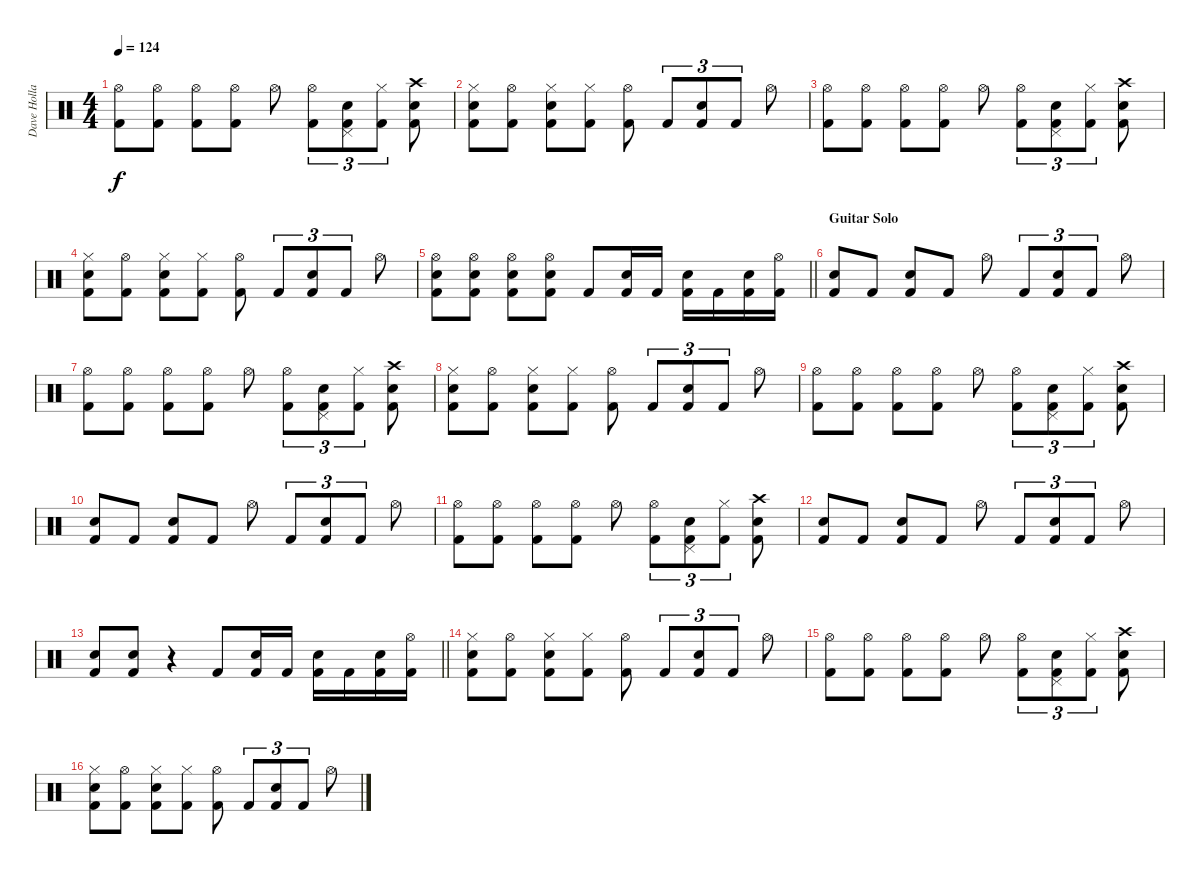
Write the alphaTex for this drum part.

\track ("Dave Holland" "Dave Holla") {instrument percussion}
\staff {score}
\articulation defaults
\ts (4 4)
\tempo 124
\clef neutral
\ks c
("Hi-Hat (open)" "Kick (hit) 2").8{dy f} ("Hi-Hat (open)" "Kick (hit) 2").8 ("Hi-Hat (open)" "Kick (hit) 2").8 ("Hi-Hat (open)" "Kick (hit) 2").8 "Hi-Hat (open)".8 ("Hi-Hat (open)" "Kick (hit) 2").8{tu (3 2)} ("Pedal Hi-Hat (hit)" "Snare (hit) 2" "Kick (hit) 2").8{tu (3 2)} ("Hi-Hat (closed)" "Kick (hit) 2").8{tu (3 2)} ("Crash high (hit)" "Snare (hit) 2" "Kick (hit) 2").8 |
("Hi-Hat (closed)" "Snare (hit) 2" "Kick (hit) 2").8 ("Hi-Hat (open)" "Kick (hit) 2").8 ("Hi-Hat (closed)" "Snare (hit) 2" "Kick (hit) 2").8 ("Hi-Hat (closed)" "Kick (hit) 2").8 ("Hi-Hat (open)" "Kick (hit) 2").8 "Kick (hit) 2".8{tu (3 2)} ("Snare (hit) 2" "Kick (hit) 2").8{tu (3 2)} "Kick (hit) 2".8{tu (3 2)} "Hi-Hat (open)".8 |
("Hi-Hat (open)" "Kick (hit) 2").8 ("Hi-Hat (open)" "Kick (hit) 2").8 ("Hi-Hat (open)" "Kick (hit) 2").8 ("Hi-Hat (open)" "Kick (hit) 2").8 "Hi-Hat (open)".8 ("Hi-Hat (open)" "Kick (hit) 2").8{tu (3 2)} ("Pedal Hi-Hat (hit)" "Snare (hit) 2" "Kick (hit) 2").8{tu (3 2)} ("Hi-Hat (closed)" "Kick (hit) 2").8{tu (3 2)} ("Crash high (hit)" "Snare (hit) 2" "Kick (hit) 2").8 |
("Hi-Hat (closed)" "Snare (hit) 2" "Kick (hit) 2").8 ("Hi-Hat (open)" "Kick (hit) 2").8 ("Hi-Hat (closed)" "Snare (hit) 2" "Kick (hit) 2").8 ("Hi-Hat (closed)" "Kick (hit) 2").8 ("Hi-Hat (open)" "Kick (hit) 2").8 "Kick (hit) 2".8{tu (3 2)} ("Snare (hit) 2" "Kick (hit) 2").8{tu (3 2)} "Kick (hit) 2".8{tu (3 2)} "Hi-Hat (open)".8 |
\barLineRight lightlight
("Hi-Hat (open)" "Snare (hit) 2" "Kick (hit) 2").8 ("Hi-Hat (open)" "Snare (hit) 2" "Kick (hit) 2").8 ("Hi-Hat (open)" "Snare (hit) 2" "Kick (hit) 2").8 ("Hi-Hat (open)" "Snare (hit) 2" "Kick (hit) 2").8 "Kick (hit) 2".8 ("Snare (hit) 2" "Kick (hit) 2").16 "Kick (hit) 2".16 ("Snare (hit) 2" "Kick (hit) 2").16 "Kick (hit) 2".16 ("Snare (hit) 2" "Kick (hit) 2").16 ("Hi-Hat (open)" "Kick (hit) 2").16 |
\section ("" "Guitar Solo")
("Snare (hit) 2" "Kick (hit) 2").8 "Kick (hit) 2".8 ("Snare (hit) 2" "Kick (hit) 2").8 "Kick (hit) 2".8 "Hi-Hat (open)".8 "Kick (hit) 2".8{tu (3 2)} ("Snare (hit) 2" "Kick (hit) 2").8{tu (3 2)} "Kick (hit) 2".8{tu (3 2)} "Hi-Hat (open)".8 |
("Hi-Hat (open)" "Kick (hit) 2").8 ("Hi-Hat (open)" "Kick (hit) 2").8 ("Hi-Hat (open)" "Kick (hit) 2").8 ("Hi-Hat (open)" "Kick (hit) 2").8 "Hi-Hat (open)".8 ("Hi-Hat (open)" "Kick (hit) 2").8{tu (3 2)} ("Pedal Hi-Hat (hit)" "Snare (hit) 2" "Kick (hit) 2").8{tu (3 2)} ("Hi-Hat (closed)" "Kick (hit) 2").8{tu (3 2)} ("Crash high (hit)" "Snare (hit) 2" "Kick (hit) 2").8 |
("Hi-Hat (closed)" "Snare (hit) 2" "Kick (hit) 2").8 ("Hi-Hat (open)" "Kick (hit) 2").8 ("Hi-Hat (closed)" "Snare (hit) 2" "Kick (hit) 2").8 ("Hi-Hat (closed)" "Kick (hit) 2").8 ("Hi-Hat (open)" "Kick (hit) 2").8 "Kick (hit) 2".8{tu (3 2)} ("Snare (hit) 2" "Kick (hit) 2").8{tu (3 2)} "Kick (hit) 2".8{tu (3 2)} "Hi-Hat (open)".8 |
("Hi-Hat (open)" "Kick (hit) 2").8 ("Hi-Hat (open)" "Kick (hit) 2").8 ("Hi-Hat (open)" "Kick (hit) 2").8 ("Hi-Hat (open)" "Kick (hit) 2").8 "Hi-Hat (open)".8 ("Hi-Hat (open)" "Kick (hit) 2").8{tu (3 2)} ("Pedal Hi-Hat (hit)" "Snare (hit) 2" "Kick (hit) 2").8{tu (3 2)} ("Hi-Hat (closed)" "Kick (hit) 2").8{tu (3 2)} ("Crash high (hit)" "Snare (hit) 2" "Kick (hit) 2").8 |
("Snare (hit) 2" "Kick (hit) 2").8 "Kick (hit) 2".8 ("Snare (hit) 2" "Kick (hit) 2").8 "Kick (hit) 2".8 "Hi-Hat (open)".8 "Kick (hit) 2".8{tu (3 2)} ("Snare (hit) 2" "Kick (hit) 2").8{tu (3 2)} "Kick (hit) 2".8{tu (3 2)} "Hi-Hat (open)".8 |
("Hi-Hat (open)" "Kick (hit) 2").8 ("Hi-Hat (open)" "Kick (hit) 2").8 ("Hi-Hat (open)" "Kick (hit) 2").8 ("Hi-Hat (open)" "Kick (hit) 2").8 "Hi-Hat (open)".8 ("Hi-Hat (open)" "Kick (hit) 2").8{tu (3 2)} ("Pedal Hi-Hat (hit)" "Snare (hit) 2" "Kick (hit) 2").8{tu (3 2)} ("Hi-Hat (closed)" "Kick (hit) 2").8{tu (3 2)} ("Crash high (hit)" "Snare (hit) 2" "Kick (hit) 2").8 |
("Snare (hit) 2" "Kick (hit) 2").8 "Kick (hit) 2".8 ("Snare (hit) 2" "Kick (hit) 2").8 "Kick (hit) 2".8 "Hi-Hat (open)".8 "Kick (hit) 2".8{tu (3 2)} ("Snare (hit) 2" "Kick (hit) 2").8{tu (3 2)} "Kick (hit) 2".8{tu (3 2)} "Hi-Hat (open)".8 |
\barLineRight lightlight
("Snare (hit) 2" "Kick (hit) 2").8 ("Snare (hit) 2" "Kick (hit) 2").8 r.4 "Kick (hit) 2".8 ("Snare (hit) 2" "Kick (hit) 2").16 "Kick (hit) 2".16 ("Snare (hit) 2" "Kick (hit) 2").16 "Kick (hit) 2".16 ("Snare (hit) 2" "Kick (hit) 2").16 ("Hi-Hat (open)" "Kick (hit) 2").16 |
("Hi-Hat (closed)" "Snare (hit) 2" "Kick (hit) 2").8 ("Hi-Hat (open)" "Kick (hit) 2").8 ("Hi-Hat (closed)" "Snare (hit) 2" "Kick (hit) 2").8 ("Hi-Hat (closed)" "Kick (hit) 2").8 ("Hi-Hat (open)" "Kick (hit) 2").8 "Kick (hit) 2".8{tu (3 2)} ("Snare (hit) 2" "Kick (hit) 2").8{tu (3 2)} "Kick (hit) 2".8{tu (3 2)} "Hi-Hat (open)".8 |
("Hi-Hat (open)" "Kick (hit) 2").8 ("Hi-Hat (open)" "Kick (hit) 2").8 ("Hi-Hat (open)" "Kick (hit) 2").8 ("Hi-Hat (open)" "Kick (hit) 2").8 "Hi-Hat (open)".8 ("Hi-Hat (open)" "Kick (hit) 2").8{tu (3 2)} ("Pedal Hi-Hat (hit)" "Snare (hit) 2" "Kick (hit) 2").8{tu (3 2)} ("Hi-Hat (closed)" "Kick (hit) 2").8{tu (3 2)} ("Crash high (hit)" "Snare (hit) 2" "Kick (hit) 2").8 |
("Hi-Hat (closed)" "Snare (hit) 2" "Kick (hit) 2").8 ("Hi-Hat (open)" "Kick (hit) 2").8 ("Hi-Hat (closed)" "Snare (hit) 2" "Kick (hit) 2").8 ("Hi-Hat (closed)" "Kick (hit) 2").8 ("Hi-Hat (open)" "Kick (hit) 2").8 "Kick (hit) 2".8{tu (3 2)} ("Snare (hit) 2" "Kick (hit) 2").8{tu (3 2)} "Kick (hit) 2".8{tu (3 2)} "Hi-Hat (open)".8
